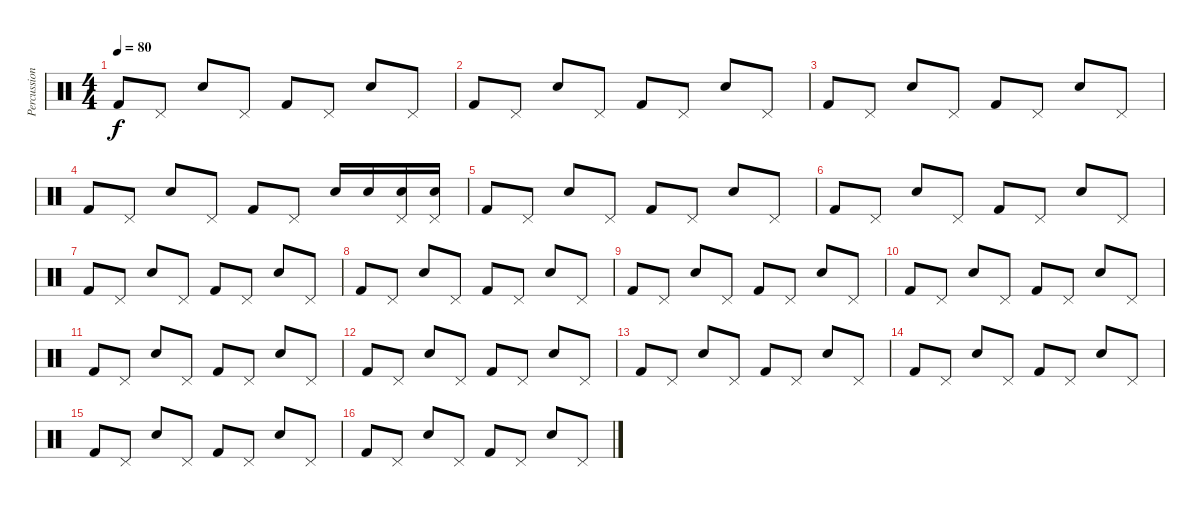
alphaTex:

\track ("Percussion" "Percussion") {instrument percussion}
\staff {score}
\articulation defaults
\ts (4 4)
\tempo 80
\clef neutral
\ks c "Kick (hit) 2".8{dy f} "Pedal Hi-Hat (hit)".8 "Electric Snare (hit)".8 "Pedal Hi-Hat (hit)".8 "Kick (hit) 2".8 "Pedal Hi-Hat (hit)".8 "Electric Snare (hit)".8 "Pedal Hi-Hat (hit)".8
|
"Kick (hit) 2".8 "Pedal Hi-Hat (hit)".8 "Electric Snare (hit)".8 "Pedal Hi-Hat (hit)".8 "Kick (hit) 2".8 "Pedal Hi-Hat (hit)".8 "Electric Snare (hit)".8 "Pedal Hi-Hat (hit)".8 |
"Kick (hit) 2".8 "Pedal Hi-Hat (hit)".8 "Electric Snare (hit)".8 "Pedal Hi-Hat (hit)".8 "Kick (hit) 2".8 "Pedal Hi-Hat (hit)".8 "Electric Snare (hit)".8 "Pedal Hi-Hat (hit)".8 |
"Kick (hit) 2".8 "Pedal Hi-Hat (hit)".8 "Electric Snare (hit)".8 "Pedal Hi-Hat (hit)".8 "Kick (hit) 2".8 "Pedal Hi-Hat (hit)".8 "Electric Snare (hit)".16 "Electric Snare (hit)".16 ("Pedal Hi-Hat (hit)" "Electric Snare (hit)").16 ("Pedal Hi-Hat (hit)" "Electric Snare (hit)").16 |
"Kick (hit) 2".8 "Pedal Hi-Hat (hit)".8 "Electric Snare (hit)".8 "Pedal Hi-Hat (hit)".8 "Kick (hit) 2".8 "Pedal Hi-Hat (hit)".8 "Electric Snare (hit)".8 "Pedal Hi-Hat (hit)".8 |
"Kick (hit) 2".8 "Pedal Hi-Hat (hit)".8 "Electric Snare (hit)".8 "Pedal Hi-Hat (hit)".8 "Kick (hit) 2".8 "Pedal Hi-Hat (hit)".8 "Electric Snare (hit)".8 "Pedal Hi-Hat (hit)".8 |
"Kick (hit) 2".8 "Pedal Hi-Hat (hit)".8 "Electric Snare (hit)".8 "Pedal Hi-Hat (hit)".8 "Kick (hit) 2".8 "Pedal Hi-Hat (hit)".8 "Electric Snare (hit)".8 "Pedal Hi-Hat (hit)".8 |
"Kick (hit) 2".8 "Pedal Hi-Hat (hit)".8 "Electric Snare (hit)".8 "Pedal Hi-Hat (hit)".8 "Kick (hit) 2".8 "Pedal Hi-Hat (hit)".8 "Electric Snare (hit)".8 "Pedal Hi-Hat (hit)".8 |
"Kick (hit) 2".8 "Pedal Hi-Hat (hit)".8 "Electric Snare (hit)".8 "Pedal Hi-Hat (hit)".8 "Kick (hit) 2".8 "Pedal Hi-Hat (hit)".8 "Electric Snare (hit)".8 "Pedal Hi-Hat (hit)".8 |
"Kick (hit) 2".8 "Pedal Hi-Hat (hit)".8 "Electric Snare (hit)".8 "Pedal Hi-Hat (hit)".8 "Kick (hit) 2".8 "Pedal Hi-Hat (hit)".8 "Electric Snare (hit)".8 "Pedal Hi-Hat (hit)".8 |
"Kick (hit) 2".8 "Pedal Hi-Hat (hit)".8 "Electric Snare (hit)".8 "Pedal Hi-Hat (hit)".8 "Kick (hit) 2".8 "Pedal Hi-Hat (hit)".8 "Electric Snare (hit)".8 "Pedal Hi-Hat (hit)".8 |
"Kick (hit) 2".8 "Pedal Hi-Hat (hit)".8 "Electric Snare (hit)".8 "Pedal Hi-Hat (hit)".8 "Kick (hit) 2".8 "Pedal Hi-Hat (hit)".8 "Electric Snare (hit)".8 "Pedal Hi-Hat (hit)".8 |
"Kick (hit) 2".8 "Pedal Hi-Hat (hit)".8 "Electric Snare (hit)".8 "Pedal Hi-Hat (hit)".8 "Kick (hit) 2".8 "Pedal Hi-Hat (hit)".8 "Electric Snare (hit)".8 "Pedal Hi-Hat (hit)".8 |
"Kick (hit) 2".8 "Pedal Hi-Hat (hit)".8 "Electric Snare (hit)".8 "Pedal Hi-Hat (hit)".8 "Kick (hit) 2".8 "Pedal Hi-Hat (hit)".8 "Electric Snare (hit)".8 "Pedal Hi-Hat (hit)".8 |
"Kick (hit) 2".8 "Pedal Hi-Hat (hit)".8 "Electric Snare (hit)".8 "Pedal Hi-Hat (hit)".8 "Kick (hit) 2".8 "Pedal Hi-Hat (hit)".8 "Electric Snare (hit)".8 "Pedal Hi-Hat (hit)".8 |
"Kick (hit) 2".8 "Pedal Hi-Hat (hit)".8 "Electric Snare (hit)".8 "Pedal Hi-Hat (hit)".8 "Kick (hit) 2".8 "Pedal Hi-Hat (hit)".8 "Electric Snare (hit)".8 "Pedal Hi-Hat (hit)".8
